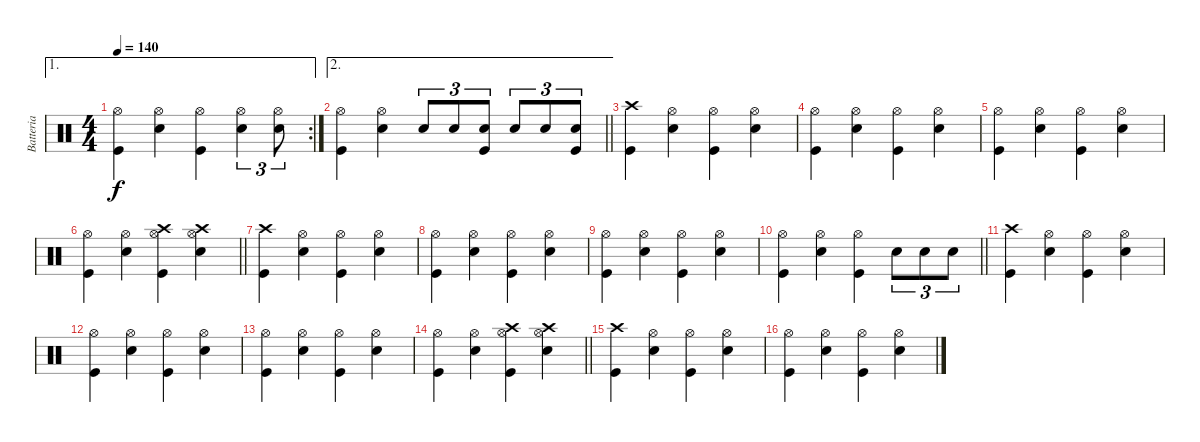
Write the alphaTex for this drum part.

\track ("Batteria" "Batteria") {instrument percussion}
\staff {score}
\articulation defaults
\ae 1
\rc 2
\ts (4 4)
\tempo 140
\clef neutral
\ks c
("Hi-Hat (open)" "Kick (hit)").4{dy f} ("Snare (hit) 2" "Hi-Hat (open)").4 ("Hi-Hat (open)" "Kick (hit)").4 ("Hi-Hat (open)" "Snare (hit) 2").4{tu (3 2)} ("Hi-Hat (open)" "Snare (hit) 2").8{tu (3 2)} |
\ae 2
\barLineRight lightlight
("Hi-Hat (open)" "Kick (hit)").4 ("Snare (hit) 2" "Hi-Hat (open)").4 "Snare (hit) 2".8{tu (3 2)} "Snare (hit) 2".8{tu (3 2)} ("Snare (hit) 2" "Kick (hit)").8{tu (3 2)} "Snare (hit) 2".8{tu (3 2)} "Snare (hit) 2".8{tu (3 2)} ("Snare (hit) 2" "Kick (hit)").8{tu (3 2)} |
("Crash high (hit)" "Kick (hit)").4 ("Snare (hit) 2" "Hi-Hat (open)").4 ("Hi-Hat (open)" "Kick (hit)").4 ("Hi-Hat (open)" "Snare (hit) 2").4 |
("Hi-Hat (open)" "Kick (hit)").4 ("Snare (hit) 2" "Hi-Hat (open)").4 ("Hi-Hat (open)" "Kick (hit)").4 ("Snare (hit) 2" "Hi-Hat (open)").4 |
("Hi-Hat (open)" "Kick (hit)").4 ("Snare (hit) 2" "Hi-Hat (open)").4 ("Hi-Hat (open)" "Kick (hit)").4 ("Snare (hit) 2" "Hi-Hat (open)").4 |
\barLineRight lightlight
("Hi-Hat (open)" "Kick (hit)").4 ("Snare (hit) 2" "Hi-Hat (open)").4 ("Hi-Hat (open)" "Kick (hit)" "Crash high (hit)").4 ("Snare (hit) 2" "Hi-Hat (open)" "Crash high (hit)").4 |
("Crash high (hit)" "Kick (hit)").4 ("Snare (hit) 2" "Hi-Hat (open)").4 ("Hi-Hat (open)" "Kick (hit)").4 ("Hi-Hat (open)" "Snare (hit) 2").4 |
("Hi-Hat (open)" "Kick (hit)").4 ("Snare (hit) 2" "Hi-Hat (open)").4 ("Hi-Hat (open)" "Kick (hit)").4 ("Snare (hit) 2" "Hi-Hat (open)").4 |
("Hi-Hat (open)" "Kick (hit)").4 ("Snare (hit) 2" "Hi-Hat (open)").4 ("Hi-Hat (open)" "Kick (hit)").4 ("Snare (hit) 2" "Hi-Hat (open)").4 |
\barLineRight lightlight
("Hi-Hat (open)" "Kick (hit)").4 ("Snare (hit) 2" "Hi-Hat (open)").4 ("Hi-Hat (open)" "Kick (hit)").4 "Snare (hit) 2".8{tu (3 2)} "Snare (hit) 2".8{tu (3 2)} "Snare (hit) 2".8{tu (3 2)} |
("Crash high (hit)" "Kick (hit)").4 ("Snare (hit) 2" "Hi-Hat (open)").4 ("Hi-Hat (open)" "Kick (hit)").4 ("Hi-Hat (open)" "Snare (hit) 2").4 |
("Hi-Hat (open)" "Kick (hit)").4 ("Snare (hit) 2" "Hi-Hat (open)").4 ("Hi-Hat (open)" "Kick (hit)").4 ("Snare (hit) 2" "Hi-Hat (open)").4 |
("Hi-Hat (open)" "Kick (hit)").4 ("Snare (hit) 2" "Hi-Hat (open)").4 ("Hi-Hat (open)" "Kick (hit)").4 ("Snare (hit) 2" "Hi-Hat (open)").4 |
\barLineRight lightlight
("Hi-Hat (open)" "Kick (hit)").4 ("Snare (hit) 2" "Hi-Hat (open)").4 ("Hi-Hat (open)" "Kick (hit)" "Crash high (hit)").4 ("Snare (hit) 2" "Hi-Hat (open)" "Crash high (hit)").4 |
("Crash high (hit)" "Kick (hit)").4 ("Snare (hit) 2" "Hi-Hat (open)").4 ("Hi-Hat (open)" "Kick (hit)").4 ("Hi-Hat (open)" "Snare (hit) 2").4 |
("Hi-Hat (open)" "Kick (hit)").4 ("Snare (hit) 2" "Hi-Hat (open)").4 ("Hi-Hat (open)" "Kick (hit)").4 ("Snare (hit) 2" "Hi-Hat (open)").4
